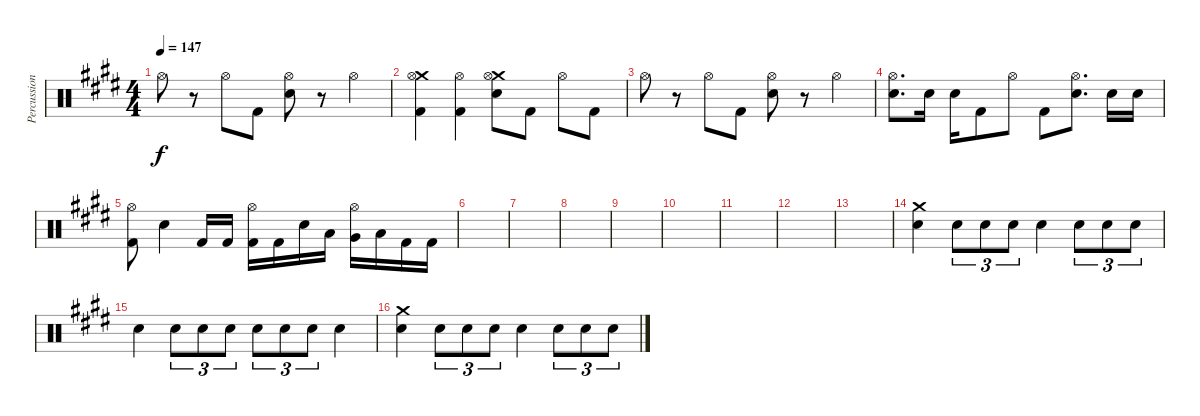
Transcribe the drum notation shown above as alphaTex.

\track ("Percussion" "Percussion") {instrument percussion}
\staff {score}
\articulation defaults
\ts (4 4)
\tempo 147
\clef neutral
\ks e "Hi-Hat (open)".8{dy f}
r.8 "Hi-Hat (open)".8 "Kick (hit) 2".8 ("Hi-Hat (open)" "Electric Snare (hit)").8 r.8 "Hi-Hat (open)".4 |
("Crash medium (hit)" "Hi-Hat (open)" "Kick (hit) 2").4 ("Hi-Hat (open)" "Kick (hit) 2").4 ("Crash medium (hit)" "Hi-Hat (open)" "Electric Snare (hit)").8 "Kick (hit) 2".8 "Hi-Hat (open)".8 "Kick (hit) 2".8 |
"Hi-Hat (open)".8 r.8 "Hi-Hat (open)".8 "Kick (hit) 2".8 ("Hi-Hat (open)" "Electric Snare (hit)").8 r.8 "Hi-Hat (open)".4 |
("Hi-Hat (open)" "Electric Snare (hit)").8{d} "Electric Snare (hit)".16 "Electric Snare (hit)".16 "Kick (hit) 2".8 "Hi-Hat (open)".8 "Kick (hit) 2".8 ("Hi-Hat (open)" "Electric Snare (hit)").8{d} "Electric Snare (hit)".16 "Electric Snare (hit)".16 |
("Hi-Hat (open)" "Kick (hit) 2").8 "Electric Snare (hit)".4 "Kick (hit) 2".16 "Kick (hit) 2".16 ("Hi-Hat (open)" "Kick (hit) 2").16 "Kick (hit) 2".16 "Electric Snare (hit)".16 "Low Tom (hit)".16 ("Hi-Hat (open)" "Very Low Tom (hit)").16 "Low Floor Tom (hit)".16 "Kick (hit) 2".16 "Kick (hit) 2".16 |
|
|
|
|
|
|
|
|
("Crash medium (hit)" "Electric Snare (hit)").4 "Electric Snare (hit)".8{tu (3 2)} "Electric Snare (hit)".8{tu (3 2)} "Electric Snare (hit)".8{tu (3 2)} "Electric Snare (hit)".4 "Electric Snare (hit)".8{tu (3 2)} "Electric Snare (hit)".8{tu (3 2)} "Electric Snare (hit)".8{tu (3 2)} |
"Electric Snare (hit)".4 "Electric Snare (hit)".8{tu (3 2)} "Electric Snare (hit)".8{tu (3 2)} "Electric Snare (hit)".8{tu (3 2)} "Electric Snare (hit)".8{tu (3 2)} "Electric Snare (hit)".8{tu (3 2)} "Electric Snare (hit)".8{tu (3 2)} "Electric Snare (hit)".4 |
("Crash medium (hit)" "Electric Snare (hit)").4 "Electric Snare (hit)".8{tu (3 2)} "Electric Snare (hit)".8{tu (3 2)} "Electric Snare (hit)".8{tu (3 2)} "Electric Snare (hit)".4 "Electric Snare (hit)".8{tu (3 2)} "Electric Snare (hit)".8{tu (3 2)} "Electric Snare (hit)".8{tu (3 2)}
